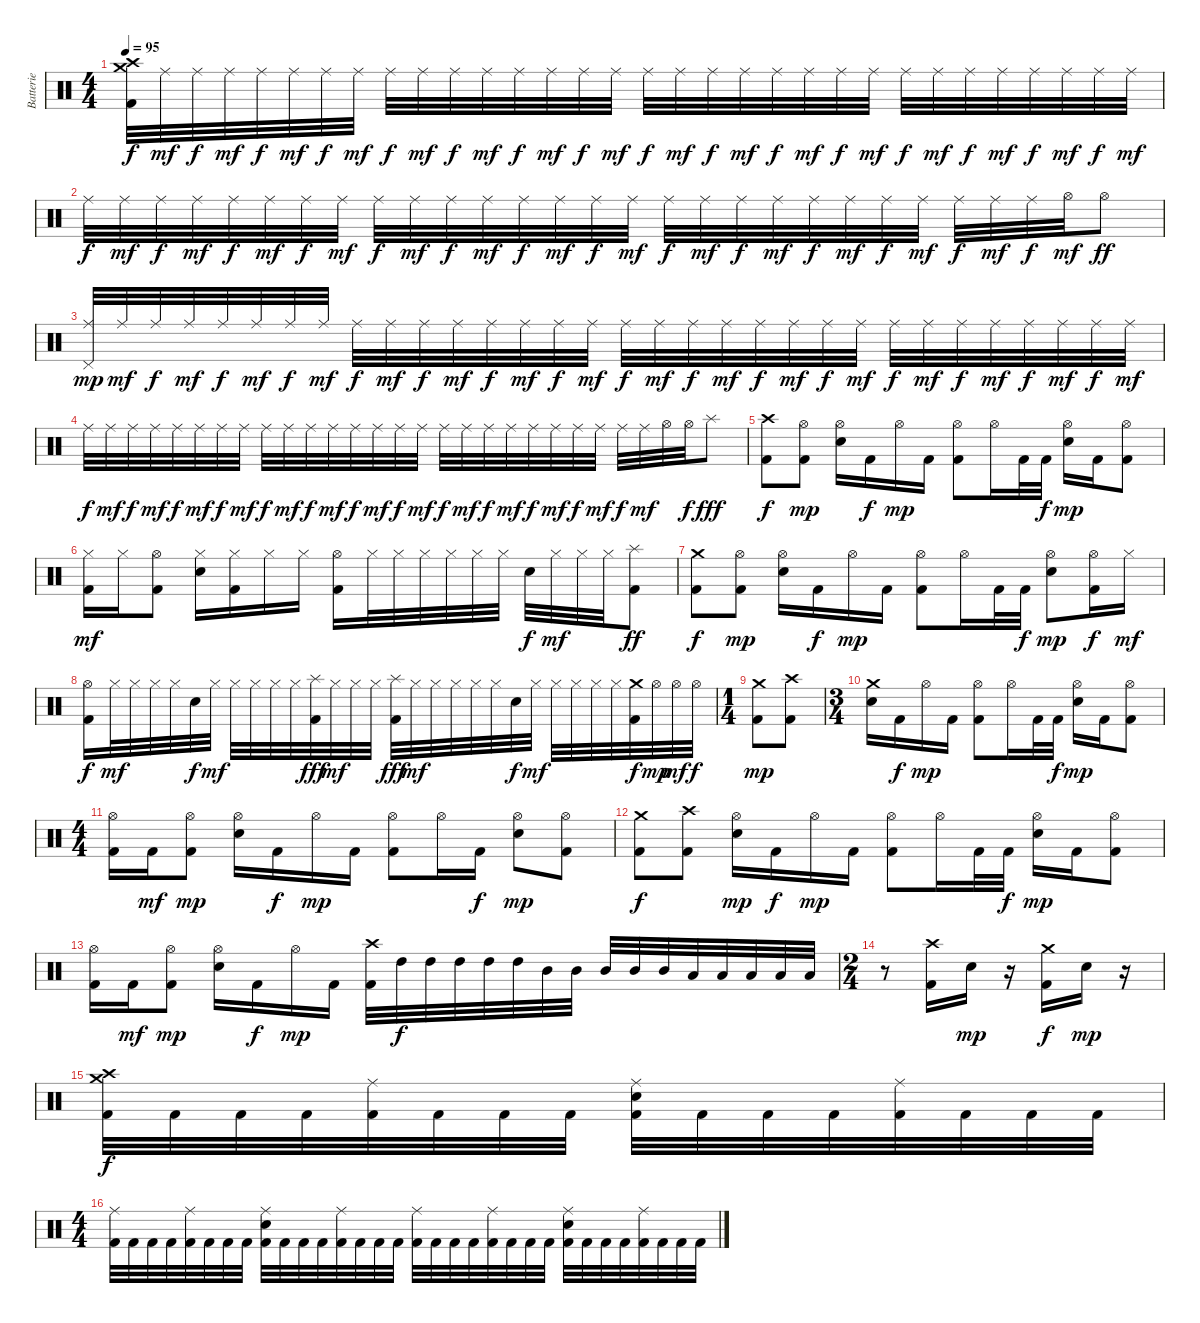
\track ("Batterie" "Batterie") {instrument percussion}
\staff {score}
\articulation defaults
\ts (4 4)
\tempo 95
\clef neutral
\ks c
("Crash high (hit)" "Crash medium (hit)" "Kick (hit) 2").32{dy f} "Ride (middle)".32{dy mf} "Ride (middle)".32{dy f} "Ride (middle)".32{dy mf} "Ride (middle)".32{dy f} "Ride (middle)".32{dy mf} "Ride (middle)".32{dy f} "Ride (middle)".32{dy mf} "Ride (middle)".32{dy f} "Ride (middle)".32{dy mf} "Ride (middle)".32{dy f} "Ride (middle)".32{dy mf} "Ride (middle)".32{dy f} "Ride (middle)".32{dy mf} "Ride (middle)".32{dy f} "Ride (middle)".32{dy mf} "Ride (middle)".32{dy f} "Ride (middle)".32{dy mf} "Ride (middle)".32{dy f} "Ride (middle)".32{dy mf} "Ride (middle)".32{dy f} "Ride (middle)".32{dy mf} "Ride (middle)".32{dy f} "Ride (middle)".32{dy mf} "Ride (middle)".32{dy f} "Ride (middle)".32{dy mf} "Ride (middle)".32{dy f} "Ride (middle)".32{dy mf} "Ride (middle)".32{dy f} "Ride (middle)".32{dy mf} "Ride (middle)".32{dy f} "Ride (middle)".32{dy mf} |
"Ride (middle)".32{dy f} "Ride (middle)".32{dy mf} "Ride (middle)".32{dy f} "Ride (middle)".32{dy mf} "Ride (middle)".32{dy f} "Ride (middle)".32{dy mf} "Ride (middle)".32{dy f} "Ride (middle)".32{dy mf} "Ride (middle)".32{dy f} "Ride (middle)".32{dy mf} "Ride (middle)".32{dy f} "Ride (middle)".32{dy mf} "Ride (middle)".32{dy f} "Ride (middle)".32{dy mf} "Ride (middle)".32{dy f} "Ride (middle)".32{dy mf} "Ride (middle)".32{dy f} "Ride (middle)".32{dy mf} "Ride (middle)".32{dy f} "Ride (middle)".32{dy mf} "Ride (middle)".32{dy f} "Ride (middle)".32{dy mf} "Ride (middle)".32{dy f} "Ride (middle)".32{dy mf} "Ride (middle)".32{dy f} "Ride (middle)".32{dy mf} "Ride (middle)".32{dy f} "Hi-Hat (open)".32{dy mf} "Hi-Hat (open)".8{dy ff} |
("Pedal Hi-Hat (hit)" "Ride (middle)").32{dy mp} "Ride (middle)".32{dy mf} "Ride (middle)".32{dy f} "Ride (middle)".32{dy mf} "Ride (middle)".32{dy f} "Ride (middle)".32{dy mf} "Ride (middle)".32{dy f} "Ride (middle)".32{dy mf} "Ride (middle)".32{dy f} "Ride (middle)".32{dy mf} "Ride (middle)".32{dy f} "Ride (middle)".32{dy mf} "Ride (middle)".32{dy f} "Ride (middle)".32{dy mf} "Ride (middle)".32{dy f} "Ride (middle)".32{dy mf} "Ride (middle)".32{dy f} "Ride (middle)".32{dy mf} "Ride (middle)".32{dy f} "Ride (middle)".32{dy mf} "Ride (middle)".32{dy f} "Ride (middle)".32{dy mf} "Ride (middle)".32{dy f} "Ride (middle)".32{dy mf} "Ride (middle)".32{dy f} "Ride (middle)".32{dy mf} "Ride (middle)".32{dy f} "Ride (middle)".32{dy mf} "Ride (middle)".32{dy f} "Ride (middle)".32{dy mf} "Ride (middle)".32{dy f} "Ride (middle)".32{dy mf} |
"Ride (middle)".32{dy f} "Ride (middle)".32{dy mf} "Ride (middle)".32{dy f} "Ride (middle)".32{dy mf} "Ride (middle)".32{dy f} "Ride (middle)".32{dy mf} "Ride (middle)".32{dy f} "Ride (middle)".32{dy mf} "Ride (middle)".32{dy f} "Ride (middle)".32{dy mf} "Ride (middle)".32{dy f} "Ride (middle)".32{dy mf} "Ride (middle)".32{dy f} "Ride (middle)".32{dy mf} "Ride (middle)".32{dy f} "Ride (middle)".32{dy mf} "Ride (middle)".32{dy f} "Ride (middle)".32{dy mf} "Ride (middle)".32{dy f} "Ride (middle)".32{dy mf} "Ride (middle)".32{dy f} "Ride (middle)".32{dy mf} "Ride (middle)".32{dy f} "Ride (middle)".32{dy mf} "Ride (middle)".32{dy f} "Ride (middle)".32{dy mf} "Hi-Hat (open)".32 "Hi-Hat (open)".32{dy f} "Splash (hit)".8{dy fff} |
("Crash high (hit)" "Kick (hit) 2").8{dy f} ("Hi-Hat (open)" "Kick (hit) 2").8{dy mp} ("Hi-Hat (open)" "Electric Snare (hit)").16 "Kick (hit) 2".16{dy f} "Hi-Hat (open)".16{dy mp} "Kick (hit) 2".16 ("Hi-Hat (open)" "Kick (hit) 2").8 "Hi-Hat (open)".16 "Kick (hit) 2".32 "Kick (hit) 2".32{dy f} ("Hi-Hat (open)" "Electric Snare (hit)").16{dy mp} "Kick (hit) 2".16 ("Hi-Hat (open)" "Kick (hit) 2").8 |
("Hi-Hat (closed)" "Kick (hit) 2").16{dy mf} "Hi-Hat (closed)".16 ("Hi-Hat (open)" "Kick (hit) 2").8 ("Hi-Hat (closed)" "Electric Snare (hit)").16 ("Hi-Hat (closed)" "Kick (hit) 2").16 "Hi-Hat (closed)".16 "Hi-Hat (closed)".16 ("Hi-Hat (open)" "Kick (hit) 2").16 "Hi-Hat (closed)".32 "Hi-Hat (closed)".32 "Hi-Hat (closed)".32 "Hi-Hat (closed)".32 "Hi-Hat (closed)".32 "Hi-Hat (closed)".32 "Electric Snare (hit)".32{dy f} "Hi-Hat (closed)".32{dy mf} "Hi-Hat (closed)".32 "Hi-Hat (closed)".32 ("Splash (hit)" "Kick (hit) 2").8{dy ff} |
("Crash medium (hit)" "Kick (hit) 2").8{dy f} ("Hi-Hat (open)" "Kick (hit) 2").8{dy mp} ("Hi-Hat (open)" "Electric Snare (hit)").16 "Kick (hit) 2".16{dy f} "Hi-Hat (open)".16{dy mp} "Kick (hit) 2".16 ("Hi-Hat (open)" "Kick (hit) 2").8 "Hi-Hat (open)".16 "Kick (hit) 2".32 "Kick (hit) 2".32{dy f} ("Hi-Hat (open)" "Electric Snare (hit)").8{dy mp} ("Hi-Hat (open)" "Kick (hit) 2").16{dy f} "Hi-Hat (closed)".16{dy mf} |
("Hi-Hat (open)" "Kick (hit) 2").16{dy f} "Hi-Hat (closed)".32{dy mf} "Hi-Hat (closed)".32 "Hi-Hat (closed)".32 "Hi-Hat (closed)".32 "Electric Snare (hit)".32{dy f} "Hi-Hat (closed)".32{dy mf} "Hi-Hat (closed)".32 "Hi-Hat (closed)".32 "Hi-Hat (closed)".32 "Hi-Hat (closed)".32 ("Splash (hit)" "Kick (hit) 2").32{dy fff} "Hi-Hat (closed)".32{dy mf} "Hi-Hat (closed)".32 "Hi-Hat (closed)".32 ("Splash (hit)" "Kick (hit) 2").32{dy fff} "Hi-Hat (closed)".32{dy mf} "Hi-Hat (closed)".32 "Hi-Hat (closed)".32 "Hi-Hat (closed)".32 "Hi-Hat (closed)".32 "Electric Snare (hit)".32{dy f} "Hi-Hat (closed)".32{dy mf} "Hi-Hat (closed)".32 "Hi-Hat (closed)".32 "Hi-Hat (closed)".32 "Hi-Hat (closed)".32 ("Crash medium (hit)" "Kick (hit) 2").32{dy f} "Hi-Hat (open)".32{dy mp} "Hi-Hat (open)".32{dy mf} "Hi-Hat (open)".32{dy f} |
\ts (1 4)
("Crash medium (hit)" "Kick (hit) 2").8{dy mp} ("Crash high (hit)" "Kick (hit) 2").8 |
\ts (3 4)
("Crash medium (hit)" "Electric Snare (hit)").16 "Kick (hit) 2".16{dy f} "Hi-Hat (open)".16{dy mp} "Kick (hit) 2".16 ("Hi-Hat (open)" "Kick (hit) 2").8 "Hi-Hat (open)".16 "Kick (hit) 2".32 "Kick (hit) 2".32{dy f} ("Hi-Hat (open)" "Electric Snare (hit)").16{dy mp} "Kick (hit) 2".16 ("Hi-Hat (open)" "Kick (hit) 2").8 |
\ts (4 4)
("Hi-Hat (open)" "Kick (hit) 2").16 "Kick (hit) 2".16{dy mf} ("Hi-Hat (open)" "Kick (hit) 2").8{dy mp} ("Hi-Hat (open)" "Electric Snare (hit)").16 "Kick (hit) 2".16{dy f} "Hi-Hat (open)".16{dy mp} "Kick (hit) 2".16 ("Hi-Hat (open)" "Kick (hit) 2").8 "Hi-Hat (open)".16 "Kick (hit) 2".16{dy f} ("Hi-Hat (open)" "Electric Snare (hit)").8{dy mp} ("Hi-Hat (open)" "Kick (hit) 2").8 |
("Crash medium (hit)" "Kick (hit) 2").8{dy f} ("Crash high (hit)" "Kick (hit) 2").8 ("Hi-Hat (open)" "Electric Snare (hit)").16{dy mp} "Kick (hit) 2".16{dy f} "Hi-Hat (open)".16{dy mp} "Kick (hit) 2".16 ("Hi-Hat (open)" "Kick (hit) 2").8 "Hi-Hat (open)".16 "Kick (hit) 2".32 "Kick (hit) 2".32{dy f} ("Hi-Hat (open)" "Electric Snare (hit)").16{dy mp} "Kick (hit) 2".16 ("Hi-Hat (open)" "Kick (hit) 2").8 |
("Hi-Hat (open)" "Kick (hit) 2").16 "Kick (hit) 2".16{dy mf} ("Hi-Hat (open)" "Kick (hit) 2").8{dy mp} ("Hi-Hat (open)" "Electric Snare (hit)").16 "Kick (hit) 2".16{dy f} "Hi-Hat (open)".16{dy mp} "Kick (hit) 2".16 ("Crash high (hit)" "Kick (hit) 2").32 "High Tom (hit)".32{dy f} "High Tom (hit)".32 "High Tom (hit)".32 "High Tom (hit)".32 "High Tom (hit)".32 "Mid Tom (hit)".32 "Mid Tom (hit)".32 "Mid Tom (hit)".32 "Mid Tom (hit)".32 "Mid Tom (hit)".32 "Low Tom (hit)".32 "Low Tom (hit)".32 "Low Tom (hit)".32 "Low Tom (hit)".32 "Low Tom (hit)".32 |
\ts (2 4)
r.8 ("Crash high (hit)" "Kick (hit) 2").16 "Electric Snare (hit)".16{dy mp} r.16 ("Crash medium (hit)" "Kick (hit) 2").16{dy f} "Electric Snare (hit)".16{dy mp} r.16 |
("Crash high (hit)" "Crash medium (hit)" "Kick (hit) 2").32{dy f} "Kick (hit) 2".32 "Kick (hit) 2".32 "Kick (hit) 2".32 ("Ride (middle)" "Kick (hit) 2").32 "Kick (hit) 2".32 "Kick (hit) 2".32 "Kick (hit) 2".32 ("Ride (middle)" "Electric Snare (hit)" "Kick (hit) 2").32 "Kick (hit) 2".32 "Kick (hit) 2".32 "Kick (hit) 2".32 ("Ride (middle)" "Kick (hit) 2").32 "Kick (hit) 2".32 "Kick (hit) 2".32 "Kick (hit) 2".32 |
\ts (4 4)
("Ride (middle)" "Kick (hit) 2").32 "Kick (hit) 2".32 "Kick (hit) 2".32 "Kick (hit) 2".32 ("Ride (middle)" "Kick (hit) 2").32 "Kick (hit) 2".32 "Kick (hit) 2".32 "Kick (hit) 2".32 ("Ride (middle)" "Electric Snare (hit)" "Kick (hit) 2").32 "Kick (hit) 2".32 "Kick (hit) 2".32 "Kick (hit) 2".32 ("Ride (middle)" "Kick (hit) 2").32 "Kick (hit) 2".32 "Kick (hit) 2".32 "Kick (hit) 2".32 ("Ride (middle)" "Kick (hit) 2").32 "Kick (hit) 2".32 "Kick (hit) 2".32 "Kick (hit) 2".32 ("Ride (middle)" "Kick (hit) 2").32 "Kick (hit) 2".32 "Kick (hit) 2".32 "Kick (hit) 2".32 ("Ride (middle)" "Electric Snare (hit)" "Kick (hit) 2").32 "Kick (hit) 2".32 "Kick (hit) 2".32 "Kick (hit) 2".32 ("Ride (middle)" "Kick (hit) 2").32 "Kick (hit) 2".32 "Kick (hit) 2".32 "Kick (hit) 2".32
